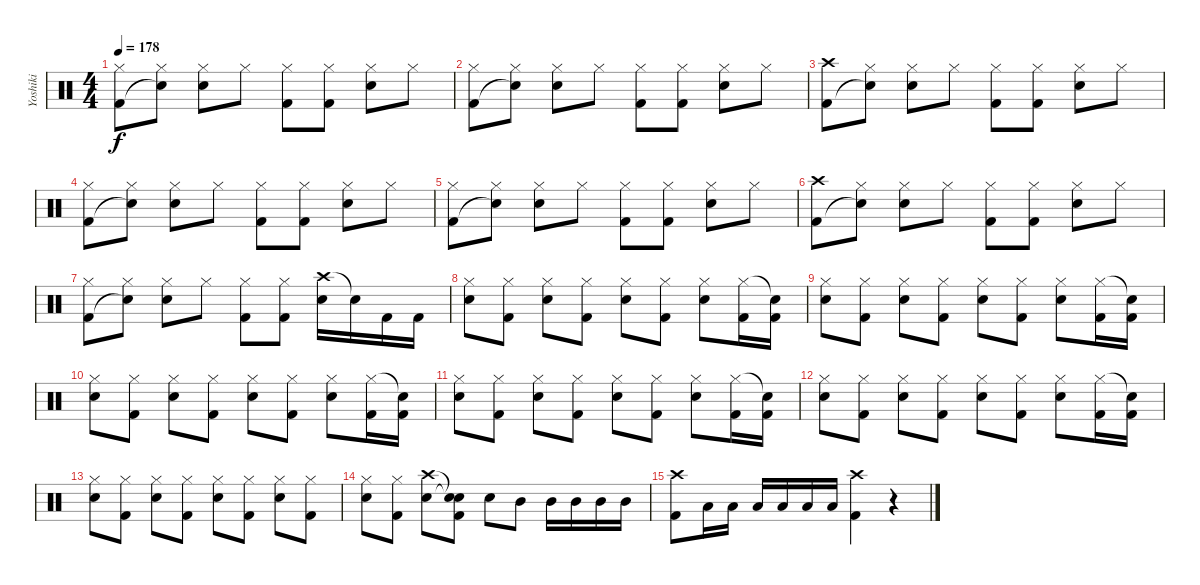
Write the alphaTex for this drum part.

\track ("Yoshiki" "Yoshiki") {instrument percussion}
\staff {score}
\articulation defaults
\ts (4 4)
\tempo 178
\clef neutral
\ks c
("Hi-Hat (closed)" "Kick (hit) 2").8{dy f} ("Hi-Hat (closed)" "Snare (hit)"{t}).8 ("Hi-Hat (closed)" "Snare (hit) 2").8 "Hi-Hat (closed)".8 ("Hi-Hat (closed)" "Kick (hit) 2").8 ("Hi-Hat (closed)" "Kick (hit) 2").8 ("Hi-Hat (closed)" "Snare (hit) 2").8 "Hi-Hat (closed)".8 |
("Hi-Hat (closed)" "Kick (hit) 2").8 ("Hi-Hat (closed)" "Snare (hit)"{t}).8 ("Hi-Hat (closed)" "Snare (hit) 2").8 "Hi-Hat (closed)".8 ("Hi-Hat (closed)" "Kick (hit) 2").8 ("Hi-Hat (closed)" "Kick (hit) 2").8 ("Hi-Hat (closed)" "Snare (hit) 2").8 "Hi-Hat (closed)".8 |
("Crash high (hit)" "Kick (hit) 2").8 ("Hi-Hat (closed)" "Snare (hit)"{t}).8 ("Hi-Hat (closed)" "Snare (hit) 2").8 "Hi-Hat (closed)".8 ("Hi-Hat (closed)" "Kick (hit) 2").8 ("Hi-Hat (closed)" "Kick (hit) 2").8 ("Hi-Hat (closed)" "Snare (hit) 2").8 "Hi-Hat (closed)".8 |
("Hi-Hat (closed)" "Kick (hit) 2").8 ("Hi-Hat (closed)" "Snare (hit)"{t}).8 ("Hi-Hat (closed)" "Snare (hit) 2").8 "Hi-Hat (closed)".8 ("Hi-Hat (closed)" "Kick (hit) 2").8 ("Hi-Hat (closed)" "Kick (hit) 2").8 ("Hi-Hat (closed)" "Snare (hit) 2").8 "Hi-Hat (closed)".8 |
("Hi-Hat (closed)" "Kick (hit) 2").8 ("Hi-Hat (closed)" "Snare (hit)"{t}).8 ("Hi-Hat (closed)" "Snare (hit) 2").8 "Hi-Hat (closed)".8 ("Hi-Hat (closed)" "Kick (hit) 2").8 ("Hi-Hat (closed)" "Kick (hit) 2").8 ("Hi-Hat (closed)" "Snare (hit) 2").8 "Hi-Hat (closed)".8 |
("Crash high (hit)" "Kick (hit) 2").8 ("Hi-Hat (closed)" "Snare (hit)"{t}).8 ("Hi-Hat (closed)" "Snare (hit) 2").8 "Hi-Hat (closed)".8 ("Hi-Hat (closed)" "Kick (hit) 2").8 ("Hi-Hat (closed)" "Kick (hit) 2").8 ("Hi-Hat (closed)" "Snare (hit) 2").8 "Hi-Hat (closed)".8 |
("Hi-Hat (closed)" "Kick (hit) 2").8 ("Hi-Hat (closed)" "Snare (hit)"{t}).8 ("Hi-Hat (closed)" "Snare (hit) 2").8 "Hi-Hat (closed)".8 ("Hi-Hat (closed)" "Kick (hit) 2").8 ("Hi-Hat (closed)" "Kick (hit) 2").8 ("Crash high (hit)" "Snare (hit) 2").16 "Snare (hit)"{t}.16 "Kick (hit) 2".16 "Kick (hit) 2".16 |
("Hi-Hat (closed)" "Snare (hit) 2").8 ("Hi-Hat (closed)" "Kick (hit) 2").8 ("Hi-Hat (closed)" "Snare (hit) 2").8 ("Hi-Hat (closed)" "Kick (hit) 2").8 ("Hi-Hat (closed)" "Snare (hit) 2").8 ("Hi-Hat (closed)" "Kick (hit) 2").8 ("Hi-Hat (closed)" "Snare (hit) 2").8 ("Hi-Hat (closed)" "Kick (hit) 2").16 ("Snare (hit)"{t} "Kick (hit) 2").16 |
("Hi-Hat (closed)" "Snare (hit) 2").8 ("Hi-Hat (closed)" "Kick (hit) 2").8 ("Hi-Hat (closed)" "Snare (hit) 2").8 ("Hi-Hat (closed)" "Kick (hit) 2").8 ("Hi-Hat (closed)" "Snare (hit) 2").8 ("Hi-Hat (closed)" "Kick (hit) 2").8 ("Hi-Hat (closed)" "Snare (hit) 2").8 ("Hi-Hat (closed)" "Kick (hit) 2").16 ("Snare (hit)"{t} "Kick (hit) 2").16 |
("Hi-Hat (closed)" "Snare (hit) 2").8 ("Hi-Hat (closed)" "Kick (hit) 2").8 ("Hi-Hat (closed)" "Snare (hit) 2").8 ("Hi-Hat (closed)" "Kick (hit) 2").8 ("Hi-Hat (closed)" "Snare (hit) 2").8 ("Hi-Hat (closed)" "Kick (hit) 2").8 ("Hi-Hat (closed)" "Snare (hit) 2").8 ("Hi-Hat (closed)" "Kick (hit) 2").16 ("Snare (hit)"{t} "Kick (hit) 2").16 |
("Hi-Hat (closed)" "Snare (hit) 2").8 ("Hi-Hat (closed)" "Kick (hit) 2").8 ("Hi-Hat (closed)" "Snare (hit) 2").8 ("Hi-Hat (closed)" "Kick (hit) 2").8 ("Hi-Hat (closed)" "Snare (hit) 2").8 ("Hi-Hat (closed)" "Kick (hit) 2").8 ("Hi-Hat (closed)" "Snare (hit) 2").8 ("Hi-Hat (closed)" "Kick (hit) 2").16 ("Snare (hit)"{t} "Kick (hit) 2").16 |
("Hi-Hat (closed)" "Snare (hit) 2").8 ("Hi-Hat (closed)" "Kick (hit) 2").8 ("Hi-Hat (closed)" "Snare (hit) 2").8 ("Hi-Hat (closed)" "Kick (hit) 2").8 ("Hi-Hat (closed)" "Snare (hit) 2").8 ("Hi-Hat (closed)" "Kick (hit) 2").8 ("Hi-Hat (closed)" "Snare (hit) 2").8 ("Hi-Hat (closed)" "Kick (hit) 2").16 ("Snare (hit)"{t} "Kick (hit) 2").16 |
("Hi-Hat (closed)" "Snare (hit) 2").8 ("Hi-Hat (closed)" "Kick (hit) 2").8 ("Hi-Hat (closed)" "Snare (hit) 2").8 ("Hi-Hat (closed)" "Kick (hit) 2").8 ("Hi-Hat (closed)" "Snare (hit) 2").8 ("Hi-Hat (closed)" "Kick (hit) 2").8 ("Hi-Hat (closed)" "Snare (hit) 2").8 ("Hi-Hat (closed)" "Kick (hit) 2").8 |
("Hi-Hat (closed)" "Snare (hit) 2").8 ("Hi-Hat (closed)" "Kick (hit) 2").8 ("Crash high (hit)" "Snare (hit) 2").8 ("Snare (hit)"{t} "Snare (hit)"{t} "Kick (hit) 2").8 "Snare (hit) 2".8 "Mid Tom (hit)".8 "Mid Tom (hit)".16 "Mid Tom (hit)".16 "Mid Tom (hit)".16 "Mid Tom (hit)".16 |
("Crash high (hit)" "Kick (hit) 2").8 "Low Tom (hit)".16 "Low Tom (hit)".16 "Low Tom (hit)".16 "Low Tom (hit)".16 "Low Tom (hit)".16 "Low Tom (hit)".16 ("Crash high (hit)" "Kick (hit) 2").4 r.4
